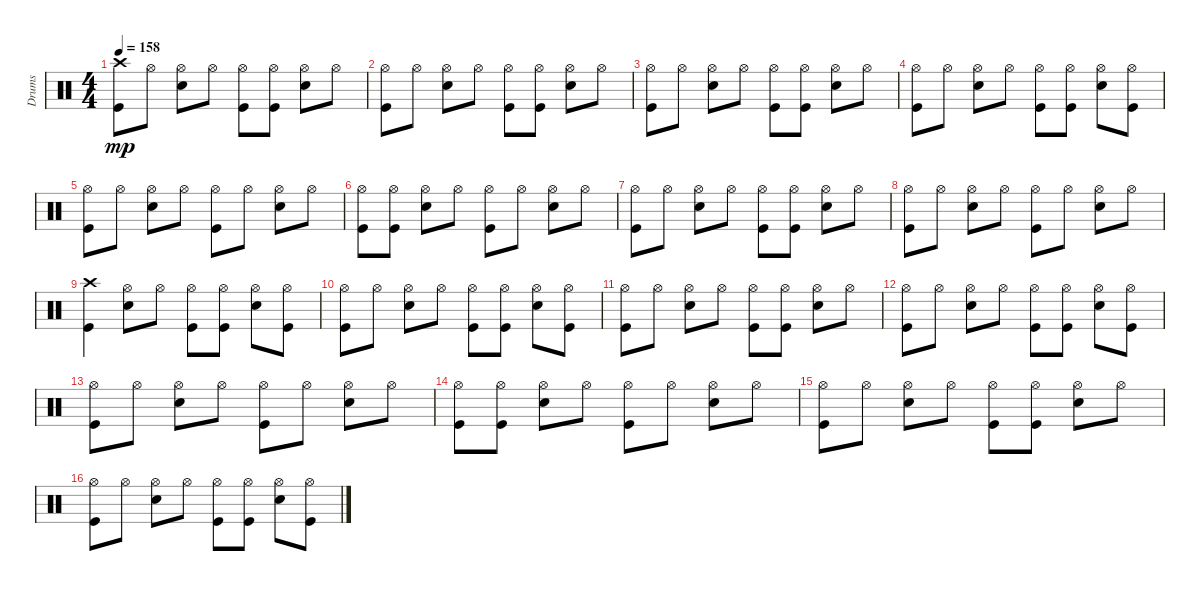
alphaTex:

\track ("Drums" "Drums") {instrument percussion}
\staff {score}
\articulation defaults
\ts (4 4)
\tempo 158
\clef neutral
\ks c
("Crash high (hit)" "Kick (hit)").8{dy mp} "Hi-Hat (open)".8 ("Hi-Hat (open)" "Snare (hit) 2").8 "Hi-Hat (open)".8 ("Hi-Hat (open)" "Kick (hit)").8 ("Hi-Hat (open)" "Kick (hit)").8 ("Hi-Hat (open)" "Snare (hit) 2").8 "Hi-Hat (open)".8 |
("Hi-Hat (open)" "Kick (hit)").8 "Hi-Hat (open)".8 ("Hi-Hat (open)" "Snare (hit) 2").8 "Hi-Hat (open)".8 ("Hi-Hat (open)" "Kick (hit)").8 ("Hi-Hat (open)" "Kick (hit)").8 ("Hi-Hat (open)" "Snare (hit) 2").8 "Hi-Hat (open)".8 |
("Hi-Hat (open)" "Kick (hit)").8 "Hi-Hat (open)".8 ("Hi-Hat (open)" "Snare (hit) 2").8 "Hi-Hat (open)".8 ("Hi-Hat (open)" "Kick (hit)").8 ("Hi-Hat (open)" "Kick (hit)").8 ("Hi-Hat (open)" "Snare (hit) 2").8 "Hi-Hat (open)".8 |
("Hi-Hat (open)" "Kick (hit)").8 "Hi-Hat (open)".8 ("Hi-Hat (open)" "Snare (hit) 2").8 "Hi-Hat (open)".8 ("Hi-Hat (open)" "Kick (hit)").8 ("Hi-Hat (open)" "Kick (hit)").8 ("Hi-Hat (open)" "Snare (hit) 2").8 ("Hi-Hat (open)" "Kick (hit)").8 |
("Hi-Hat (open)" "Kick (hit)").8 "Hi-Hat (open)".8 ("Hi-Hat (open)" "Snare (hit) 2").8 "Hi-Hat (open)".8 ("Hi-Hat (open)" "Kick (hit)").8 "Hi-Hat (open)".8 ("Hi-Hat (open)" "Snare (hit) 2").8 "Hi-Hat (open)".8 |
("Hi-Hat (open)" "Kick (hit)").8 ("Hi-Hat (open)" "Kick (hit)").8 ("Hi-Hat (open)" "Snare (hit) 2").8 "Hi-Hat (open)".8 ("Hi-Hat (open)" "Kick (hit)").8 "Hi-Hat (open)".8 ("Hi-Hat (open)" "Snare (hit) 2").8 "Hi-Hat (open)".8 |
("Hi-Hat (open)" "Kick (hit)").8 "Hi-Hat (open)".8 ("Hi-Hat (open)" "Snare (hit) 2").8 "Hi-Hat (open)".8 ("Hi-Hat (open)" "Kick (hit)").8 ("Hi-Hat (open)" "Kick (hit)").8 ("Hi-Hat (open)" "Snare (hit) 2").8 "Hi-Hat (open)".8 |
("Hi-Hat (open)" "Kick (hit)").8 "Hi-Hat (open)".8 ("Hi-Hat (open)" "Snare (hit) 2").8 "Hi-Hat (open)".8 ("Hi-Hat (open)" "Kick (hit)").8 "Hi-Hat (open)".8 ("Hi-Hat (open)" "Snare (hit) 2").8 "Hi-Hat (open)".8 |
("Crash high (hit)" "Kick (hit)").4 ("Hi-Hat (open)" "Snare (hit) 2").8 "Hi-Hat (open)".8 ("Hi-Hat (open)" "Kick (hit)").8 ("Hi-Hat (open)" "Kick (hit)").8 ("Hi-Hat (open)" "Snare (hit) 2").8 ("Hi-Hat (open)" "Kick (hit)").8 |
("Hi-Hat (open)" "Kick (hit)").8 "Hi-Hat (open)".8 ("Hi-Hat (open)" "Snare (hit) 2").8 "Hi-Hat (open)".8 ("Hi-Hat (open)" "Kick (hit)").8 ("Hi-Hat (open)" "Kick (hit)").8 ("Hi-Hat (open)" "Snare (hit) 2").8 ("Hi-Hat (open)" "Kick (hit)").8 |
("Hi-Hat (open)" "Kick (hit)").8 "Hi-Hat (open)".8 ("Hi-Hat (open)" "Snare (hit) 2").8 "Hi-Hat (open)".8 ("Hi-Hat (open)" "Kick (hit)").8 ("Hi-Hat (open)" "Kick (hit)").8 ("Hi-Hat (open)" "Snare (hit) 2").8 "Hi-Hat (open)".8 |
("Hi-Hat (open)" "Kick (hit)").8 "Hi-Hat (open)".8 ("Hi-Hat (open)" "Snare (hit) 2").8 "Hi-Hat (open)".8 ("Hi-Hat (open)" "Kick (hit)").8 ("Hi-Hat (open)" "Kick (hit)").8 ("Hi-Hat (open)" "Snare (hit) 2").8 ("Hi-Hat (open)" "Kick (hit)").8 |
("Hi-Hat (open)" "Kick (hit)").8 "Hi-Hat (open)".8 ("Hi-Hat (open)" "Snare (hit) 2").8 "Hi-Hat (open)".8 ("Hi-Hat (open)" "Kick (hit)").8 "Hi-Hat (open)".8 ("Hi-Hat (open)" "Snare (hit) 2").8 "Hi-Hat (open)".8 |
("Hi-Hat (open)" "Kick (hit)").8 ("Hi-Hat (open)" "Kick (hit)").8 ("Hi-Hat (open)" "Snare (hit) 2").8 "Hi-Hat (open)".8 ("Hi-Hat (open)" "Kick (hit)").8 "Hi-Hat (open)".8 ("Hi-Hat (open)" "Snare (hit) 2").8 "Hi-Hat (open)".8 |
("Hi-Hat (open)" "Kick (hit)").8 "Hi-Hat (open)".8 ("Hi-Hat (open)" "Snare (hit) 2").8 "Hi-Hat (open)".8 ("Hi-Hat (open)" "Kick (hit)").8 ("Hi-Hat (open)" "Kick (hit)").8 ("Hi-Hat (open)" "Snare (hit) 2").8 "Hi-Hat (open)".8 |
("Hi-Hat (open)" "Kick (hit)").8 "Hi-Hat (open)".8 ("Hi-Hat (open)" "Snare (hit) 2").8 "Hi-Hat (open)".8 ("Hi-Hat (open)" "Kick (hit)").8 ("Hi-Hat (open)" "Kick (hit)").8 ("Hi-Hat (open)" "Snare (hit) 2").8 ("Hi-Hat (open)" "Kick (hit)").8
